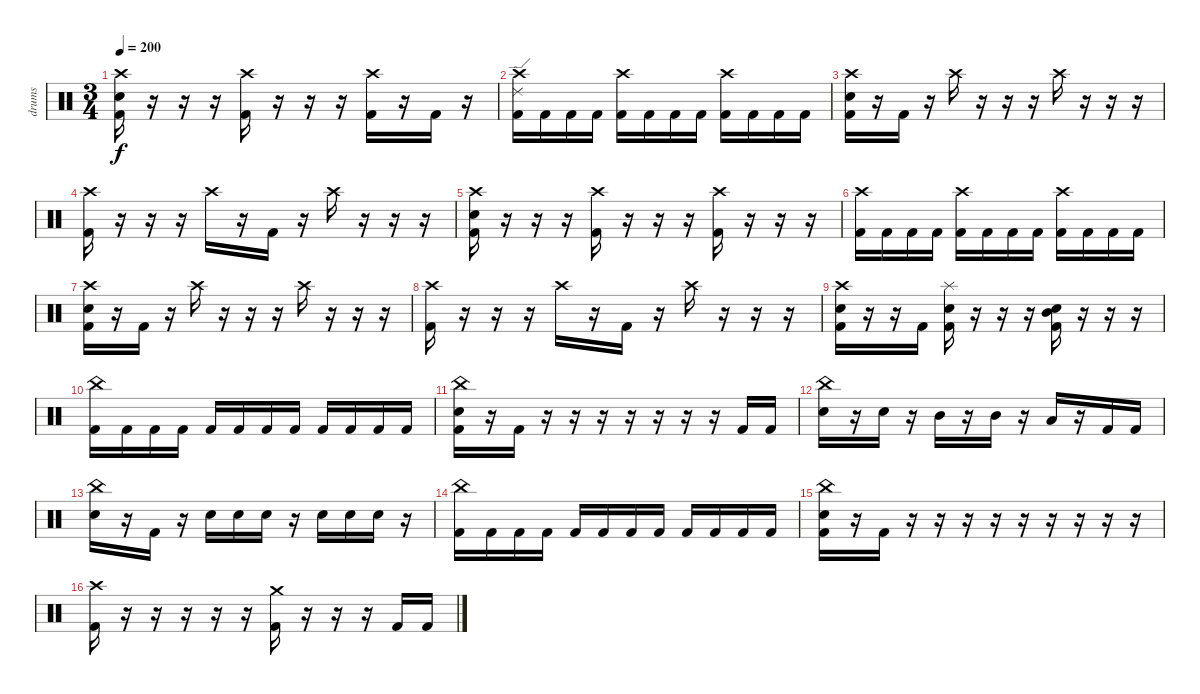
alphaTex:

\track ("drums" "drums") {instrument percussion}
\staff {score}
\articulation defaults
\ts (3 4)
\tempo 200
\clef neutral
\ks c
("Crash high (hit)" "Electric Snare (hit)" "Kick (hit) 2").16{dy f} r.16 r.16 r.16 ("Crash high (hit)" "Kick (hit) 2").16 r.16 r.16 r.16 ("Crash high (hit)" "Kick (hit) 2").16 r.16 "Kick (hit) 2".16 r.16 |
("Crash high (hit)" "Ride (edge) 2" "Kick (hit) 2").16 "Kick (hit) 2".16 "Kick (hit) 2".16 "Kick (hit) 2".16 ("Crash high (hit)" "Kick (hit) 2").16 "Kick (hit) 2".16 "Kick (hit) 2".16 "Kick (hit) 2".16 ("Kick (hit) 2" "Crash high (hit)").16 "Kick (hit) 2".16 "Kick (hit) 2".16 "Kick (hit) 2".16 |
("Crash high (hit)" "Electric Snare (hit)" "Kick (hit) 2").16 r.16 "Kick (hit) 2".16 r.16 "Crash high (hit)".16 r.16 r.16 r.16 "Crash high (hit)".16 r.16 r.16 r.16 |
("Crash high (hit)" "Kick (hit) 2").16 r.16 r.16 r.16 "Crash high (hit)".16 r.16 "Kick (hit) 2".16 r.16 "Crash high (hit)".16 r.16 r.16 r.16 |
("Crash high (hit)" "Electric Snare (hit)" "Kick (hit) 2").16 r.16 r.16 r.16 ("Crash high (hit)" "Kick (hit) 2").16 r.16 r.16 r.16 ("Crash high (hit)" "Kick (hit) 2").16 r.16 r.16 r.16 |
("Crash high (hit)" "Kick (hit) 2").16 "Kick (hit) 2".16 "Kick (hit) 2".16 "Kick (hit) 2".16 ("Crash high (hit)" "Kick (hit) 2").16 "Kick (hit) 2".16 "Kick (hit) 2".16 "Kick (hit) 2".16 ("Kick (hit) 2" "Crash high (hit)").16 "Kick (hit) 2".16 "Kick (hit) 2".16 "Kick (hit) 2".16 |
("Crash high (hit)" "Electric Snare (hit)" "Kick (hit) 2").16 r.16 "Kick (hit) 2".16 r.16 "Crash high (hit)".16 r.16 r.16 r.16 "Crash high (hit)".16 r.16 r.16 r.16 |
("Crash high (hit)" "Kick (hit) 2").16 r.16 r.16 r.16 "Crash high (hit)".16 r.16 "Kick (hit) 2".16 r.16 "Crash high (hit)".16 r.16 r.16 r.16 |
("Crash high (hit)" "Electric Snare (hit)" "Kick (hit) 2").16 r.16 r.16 "Kick (hit) 2".16 ("Splash (hit)" "Kick (hit) 2" "Electric Snare (hit)").16 r.16 r.16 r.16 ("Mid Tom (hit)" "Kick (hit) 2" "Electric Snare (hit)").16 r.16 r.16 r.16 |
("China (hit)" "Kick (hit) 2").16 "Kick (hit) 2".16 "Kick (hit) 2".16 "Kick (hit) 2".16 "Kick (hit) 2".16 "Kick (hit) 2".16 "Kick (hit) 2".16 "Kick (hit) 2".16 "Kick (hit) 2".16 "Kick (hit) 2".16 "Kick (hit) 2".16 "Kick (hit) 2".16 |
("China (hit)" "Electric Snare (hit)" "Kick (hit) 2").16 r.16 "Kick (hit) 2".16 r.16 r.16 r.16 r.16 r.16 r.16 r.16 "Kick (hit) 2".16 "Kick (hit) 2".16 |
("Electric Snare (hit)" "China (hit)").16 r.16 "Electric Snare (hit)".16 r.16 "Mid Tom (hit)".16 r.16 "Mid Tom (hit)".16 r.16 "Low Tom (hit)".16 r.16 "Kick (hit) 2".16 "Kick (hit) 2".16 |
("Electric Snare (hit)" "China (hit)").16 r.16 "Kick (hit) 2".16 r.16 "Electric Snare (hit)".16 "Electric Snare (hit)".16 "Electric Snare (hit)".16 r.16 "Electric Snare (hit)".16 "Electric Snare (hit)".16 "Electric Snare (hit)".16 r.16 |
("China (hit)" "Kick (hit) 2").16 "Kick (hit) 2".16 "Kick (hit) 2".16 "Kick (hit) 2".16 "Kick (hit) 2".16 "Kick (hit) 2".16 "Kick (hit) 2".16 "Kick (hit) 2".16 "Kick (hit) 2".16 "Kick (hit) 2".16 "Kick (hit) 2".16 "Kick (hit) 2".16 |
("China (hit)" "Electric Snare (hit)" "Kick (hit) 2").16 r.16 "Kick (hit) 2".16 r.16 r.16 r.16 r.16 r.16 r.16 r.16 r.16 r.16 |
("Crash high (hit)" "Kick (hit) 2").16 r.16 r.16 r.16 r.16 r.16 ("Kick (hit) 2" "Crash medium (hit)").16 r.16 r.16 r.16 "Kick (hit) 2".16 "Kick (hit) 2".16
